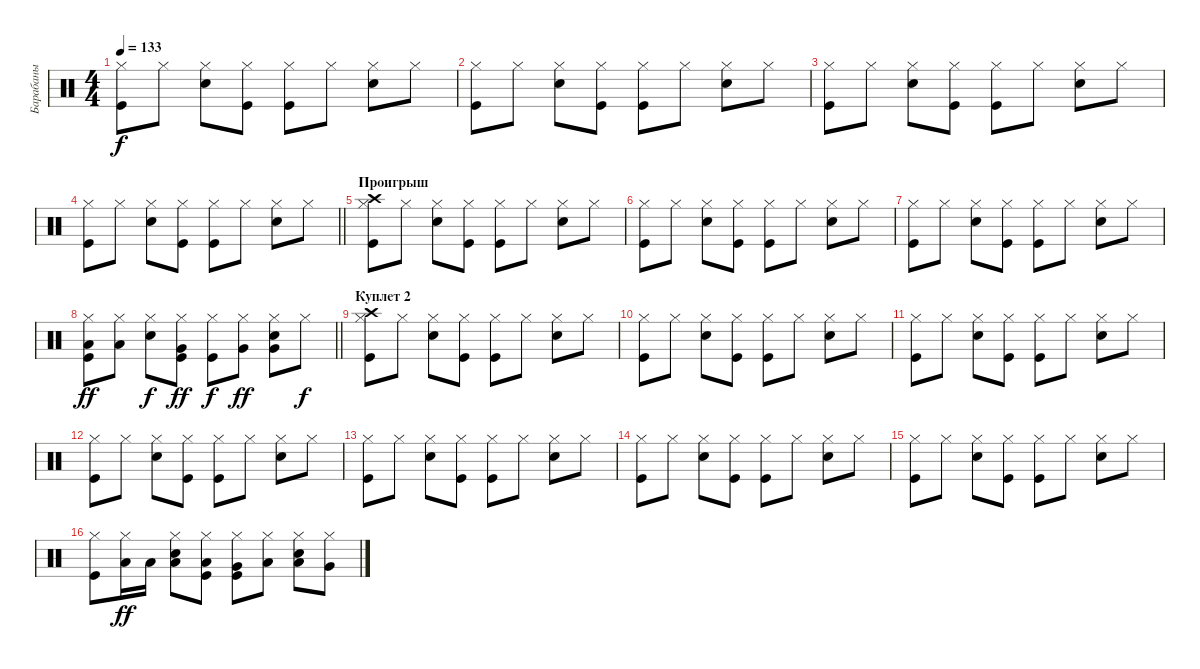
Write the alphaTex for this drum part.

\track ("Барабаны" "Барабаны") {instrument percussion}
\staff {score}
\articulation defaults
\ts (4 4)
\tempo 133
\clef neutral
\ks c
("Kick (hit)" "Hi-Hat (closed)").8{dy f} "Hi-Hat (closed)".8 ("Snare (hit) 2" "Hi-Hat (closed)").8 ("Kick (hit)" "Hi-Hat (closed)").8 ("Kick (hit)" "Hi-Hat (closed)").8 "Hi-Hat (closed)".8 ("Snare (hit) 2" "Hi-Hat (closed)").8 "Hi-Hat (closed)".8 |
("Kick (hit)" "Hi-Hat (closed)").8 "Hi-Hat (closed)".8 ("Snare (hit) 2" "Hi-Hat (closed)").8 ("Kick (hit)" "Hi-Hat (closed)").8 ("Kick (hit)" "Hi-Hat (closed)").8 "Hi-Hat (closed)".8 ("Snare (hit) 2" "Hi-Hat (closed)").8 "Hi-Hat (closed)".8 |
("Kick (hit)" "Hi-Hat (closed)").8 "Hi-Hat (closed)".8 ("Snare (hit) 2" "Hi-Hat (closed)").8 ("Kick (hit)" "Hi-Hat (closed)").8 ("Kick (hit)" "Hi-Hat (closed)").8 "Hi-Hat (closed)".8 ("Snare (hit) 2" "Hi-Hat (closed)").8 "Hi-Hat (closed)".8 |
\barLineRight lightlight
("Kick (hit)" "Hi-Hat (closed)").8 "Hi-Hat (closed)".8 ("Snare (hit) 2" "Hi-Hat (closed)").8 ("Kick (hit)" "Hi-Hat (closed)").8 ("Kick (hit)" "Hi-Hat (closed)").8 "Hi-Hat (closed)".8 ("Snare (hit) 2" "Hi-Hat (closed)").8 "Hi-Hat (closed)".8 |
\section ("" "Проигрыш")
("Kick (hit)" "Hi-Hat (closed)" "Crash high (hit)").8 "Hi-Hat (closed)".8 ("Snare (hit) 2" "Hi-Hat (closed)").8 ("Kick (hit)" "Hi-Hat (closed)").8 ("Kick (hit)" "Hi-Hat (closed)").8 "Hi-Hat (closed)".8 ("Snare (hit) 2" "Hi-Hat (closed)").8 "Hi-Hat (closed)".8 |
("Kick (hit)" "Hi-Hat (closed)").8 "Hi-Hat (closed)".8 ("Snare (hit) 2" "Hi-Hat (closed)").8 ("Kick (hit)" "Hi-Hat (closed)").8 ("Kick (hit)" "Hi-Hat (closed)").8 "Hi-Hat (closed)".8 ("Snare (hit) 2" "Hi-Hat (closed)").8 "Hi-Hat (closed)".8 |
("Kick (hit)" "Hi-Hat (closed)").8 "Hi-Hat (closed)".8 ("Snare (hit) 2" "Hi-Hat (closed)").8 ("Kick (hit)" "Hi-Hat (closed)").8 ("Kick (hit)" "Hi-Hat (closed)").8 "Hi-Hat (closed)".8 ("Snare (hit) 2" "Hi-Hat (closed)").8 "Hi-Hat (closed)".8 |
\barLineRight lightlight
("Kick (hit)" "Hi-Hat (closed)" "Low Tom (hit)").8{dy ff} ("Hi-Hat (closed)" "Low Tom (hit)").8 ("Snare (hit) 2" "Hi-Hat (closed)").8{dy f} ("Kick (hit)" "Hi-Hat (closed)" "Very Low Tom (hit)").8{dy ff} ("Kick (hit)" "Hi-Hat (closed)").8{dy f} ("Hi-Hat (closed)" "Very Low Tom (hit)").8{dy ff} ("Snare (hit) 2" "Hi-Hat (closed)" "Very Low Tom (hit)").8 "Hi-Hat (closed)".8{dy f} |
\section ("" "Куплет 2")
("Kick (hit)" "Hi-Hat (closed)" "Crash high (hit)").8 "Hi-Hat (closed)".8 ("Snare (hit) 2" "Hi-Hat (closed)").8 ("Kick (hit)" "Hi-Hat (closed)").8 ("Kick (hit)" "Hi-Hat (closed)").8 "Hi-Hat (closed)".8 ("Snare (hit) 2" "Hi-Hat (closed)").8 "Hi-Hat (closed)".8 |
("Kick (hit)" "Hi-Hat (closed)").8 "Hi-Hat (closed)".8 ("Snare (hit) 2" "Hi-Hat (closed)").8 ("Kick (hit)" "Hi-Hat (closed)").8 ("Kick (hit)" "Hi-Hat (closed)").8 "Hi-Hat (closed)".8 ("Snare (hit) 2" "Hi-Hat (closed)").8 "Hi-Hat (closed)".8 |
("Kick (hit)" "Hi-Hat (closed)").8 "Hi-Hat (closed)".8 ("Snare (hit) 2" "Hi-Hat (closed)").8 ("Kick (hit)" "Hi-Hat (closed)").8 ("Kick (hit)" "Hi-Hat (closed)").8 "Hi-Hat (closed)".8 ("Snare (hit) 2" "Hi-Hat (closed)").8 "Hi-Hat (closed)".8 |
("Kick (hit)" "Hi-Hat (closed)").8 "Hi-Hat (closed)".8 ("Snare (hit) 2" "Hi-Hat (closed)").8 ("Kick (hit)" "Hi-Hat (closed)").8 ("Kick (hit)" "Hi-Hat (closed)").8 "Hi-Hat (closed)".8 ("Snare (hit) 2" "Hi-Hat (closed)").8 "Hi-Hat (closed)".8 |
("Kick (hit)" "Hi-Hat (closed)").8 "Hi-Hat (closed)".8 ("Snare (hit) 2" "Hi-Hat (closed)").8 ("Kick (hit)" "Hi-Hat (closed)").8 ("Kick (hit)" "Hi-Hat (closed)").8 "Hi-Hat (closed)".8 ("Snare (hit) 2" "Hi-Hat (closed)").8 "Hi-Hat (closed)".8 |
("Kick (hit)" "Hi-Hat (closed)").8 "Hi-Hat (closed)".8 ("Snare (hit) 2" "Hi-Hat (closed)").8 ("Kick (hit)" "Hi-Hat (closed)").8 ("Kick (hit)" "Hi-Hat (closed)").8 "Hi-Hat (closed)".8 ("Snare (hit) 2" "Hi-Hat (closed)").8 "Hi-Hat (closed)".8 |
("Kick (hit)" "Hi-Hat (closed)").8 "Hi-Hat (closed)".8 ("Snare (hit) 2" "Hi-Hat (closed)").8 ("Kick (hit)" "Hi-Hat (closed)").8 ("Kick (hit)" "Hi-Hat (closed)").8 "Hi-Hat (closed)".8 ("Snare (hit) 2" "Hi-Hat (closed)").8 "Hi-Hat (closed)".8 |
("Kick (hit)" "Hi-Hat (closed)").8 ("Hi-Hat (closed)" "Low Tom (hit)").16{dy ff} "Low Tom (hit)".16 ("Snare (hit) 2" "Hi-Hat (closed)" "Low Tom (hit)").8 ("Kick (hit)" "Hi-Hat (closed)" "Low Tom (hit)").8 ("Kick (hit)" "Hi-Hat (closed)" "Very Low Tom (hit)").8 ("Hi-Hat (closed)" "Low Floor Tom (hit)").8 ("Snare (hit) 2" "Hi-Hat (closed)" "Low Tom (hit)").8 ("Hi-Hat (closed)" "Very Low Tom (hit)").8
